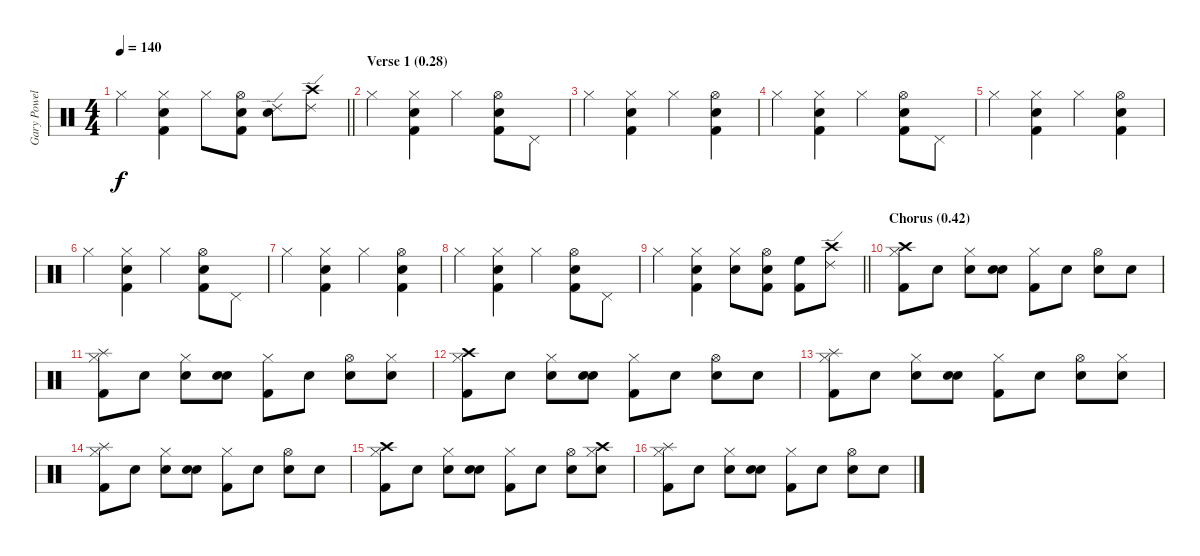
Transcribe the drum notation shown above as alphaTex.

\track ("Gary Powell (Drums)" "Gary Powel") {instrument percussion}
\staff {score}
\articulation defaults
\ts (4 4)
\tempo 140
\clef neutral
\barLineRight lightlight
\ks c "Hi-Hat (closed)".4{dy f}
("Kick (hit) 2" "Hi-Hat (closed)" "Snare (hit) 2").4 "Hi-Hat (closed)".8 ("Kick (hit) 2" "Hi-Hat (open)" "Snare (hit) 2").8 ("Ride (edge) 2" "Snare (hit) 2").8 ("Ride (edge) 2" "Crash high (hit)").8 |
\section ("" "Verse 1 (0.28)")
"Hi-Hat (closed)".4 ("Kick (hit) 2" "Hi-Hat (closed)" "Snare (hit) 2").4 "Hi-Hat (closed)".4 ("Kick (hit) 2" "Hi-Hat (open)" "Snare (hit) 2").8 "Pedal Hi-Hat (hit)".8 |
"Hi-Hat (closed)".4 ("Kick (hit) 2" "Hi-Hat (closed)" "Snare (hit) 2").4 "Hi-Hat (closed)".4 ("Kick (hit) 2" "Hi-Hat (open)" "Snare (hit) 2").4 |
"Hi-Hat (closed)".4 ("Kick (hit) 2" "Hi-Hat (closed)" "Snare (hit) 2").4 "Hi-Hat (closed)".4 ("Kick (hit) 2" "Hi-Hat (open)" "Snare (hit) 2").8 "Pedal Hi-Hat (hit)".8 |
"Hi-Hat (closed)".4 ("Kick (hit) 2" "Hi-Hat (closed)" "Snare (hit) 2").4 "Hi-Hat (closed)".4 ("Kick (hit) 2" "Hi-Hat (open)" "Snare (hit) 2").4 |
"Hi-Hat (closed)".4 ("Kick (hit) 2" "Hi-Hat (closed)" "Snare (hit) 2").4 "Hi-Hat (closed)".4 ("Kick (hit) 2" "Hi-Hat (open)" "Snare (hit) 2").8 "Pedal Hi-Hat (hit)".8 |
"Hi-Hat (closed)".4 ("Kick (hit) 2" "Hi-Hat (closed)" "Snare (hit) 2").4 "Hi-Hat (closed)".4 ("Kick (hit) 2" "Hi-Hat (open)" "Snare (hit) 2").4 |
"Hi-Hat (closed)".4 ("Kick (hit) 2" "Hi-Hat (closed)" "Snare (hit) 2").4 "Hi-Hat (closed)".4 ("Kick (hit) 2" "Hi-Hat (open)" "Snare (hit) 2").8 "Pedal Hi-Hat (hit)".8 |
\barLineRight lightlight "Hi-Hat (closed)".4
("Kick (hit) 2" "Hi-Hat (closed)" "Snare (hit) 2").4 ("Hi-Hat (closed)" "Snare (hit) 2").8 ("Kick (hit) 2" "Hi-Hat (open)" "Snare (hit) 2").8 ("Kick (hit) 2" "High Floor Tom (hit)").8 ("Ride (edge) 2" "Crash high (hit)").8 |
\section ("" "Chorus (0.42)")
("Kick (hit) 2" "Crash high (hit)" "Hi-Hat (closed)").8 "Snare (hit)".8 ("Snare (hit) 2" "Hi-Hat (closed)").8 ("Snare (hit)" "Snare (hit) 2").8 ("Kick (hit) 2" "Hi-Hat (closed)").8 "Snare (hit)".8 ("Snare (hit) 2" "Hi-Hat (open)").8 "Snare (hit)".8 |
("Kick (hit) 2" "Splash (hit)" "Hi-Hat (closed)").8 "Snare (hit)".8 ("Snare (hit) 2" "Hi-Hat (closed)").8 ("Snare (hit)" "Snare (hit) 2").8 ("Kick (hit) 2" "Hi-Hat (closed)").8 "Snare (hit)".8 ("Snare (hit) 2" "Hi-Hat (open)").8 ("Snare (hit)" "Hi-Hat (closed)").8 |
("Kick (hit) 2" "Crash high (hit)" "Hi-Hat (closed)").8 "Snare (hit)".8 ("Snare (hit) 2" "Hi-Hat (closed)").8 ("Snare (hit)" "Snare (hit) 2").8 ("Kick (hit) 2" "Hi-Hat (closed)").8 "Snare (hit)".8 ("Snare (hit) 2" "Hi-Hat (open)").8 "Snare (hit)".8 |
("Kick (hit) 2" "Splash (hit)" "Hi-Hat (closed)").8 "Snare (hit)".8 ("Snare (hit) 2" "Hi-Hat (closed)").8 ("Snare (hit)" "Snare (hit) 2").8 ("Kick (hit) 2" "Hi-Hat (closed)").8 "Snare (hit)".8 ("Snare (hit) 2" "Hi-Hat (open)").8 ("Snare (hit)" "Hi-Hat (closed)").8 |
("Kick (hit) 2" "Splash (hit)" "Hi-Hat (closed)").8 "Snare (hit)".8 ("Snare (hit) 2" "Hi-Hat (closed)").8 ("Snare (hit)" "Snare (hit) 2").8 ("Kick (hit) 2" "Hi-Hat (closed)").8 "Snare (hit)".8 ("Snare (hit) 2" "Hi-Hat (open)").8 "Snare (hit)".8 |
("Kick (hit) 2" "Crash high (hit)" "Hi-Hat (closed)").8 "Snare (hit)".8 ("Snare (hit) 2" "Hi-Hat (closed)").8 ("Snare (hit)" "Snare (hit) 2").8 ("Kick (hit) 2" "Hi-Hat (closed)").8 "Snare (hit)".8 ("Snare (hit) 2" "Hi-Hat (open)").8 ("Snare (hit)" "Crash high (hit)" "Hi-Hat (closed)").8 |
("Kick (hit) 2" "Splash (hit)" "Hi-Hat (closed)").8 "Snare (hit)".8 ("Snare (hit) 2" "Hi-Hat (closed)").8 ("Snare (hit)" "Snare (hit) 2").8 ("Kick (hit) 2" "Hi-Hat (closed)").8 "Snare (hit)".8 ("Snare (hit) 2" "Hi-Hat (open)").8 "Snare (hit)".8
